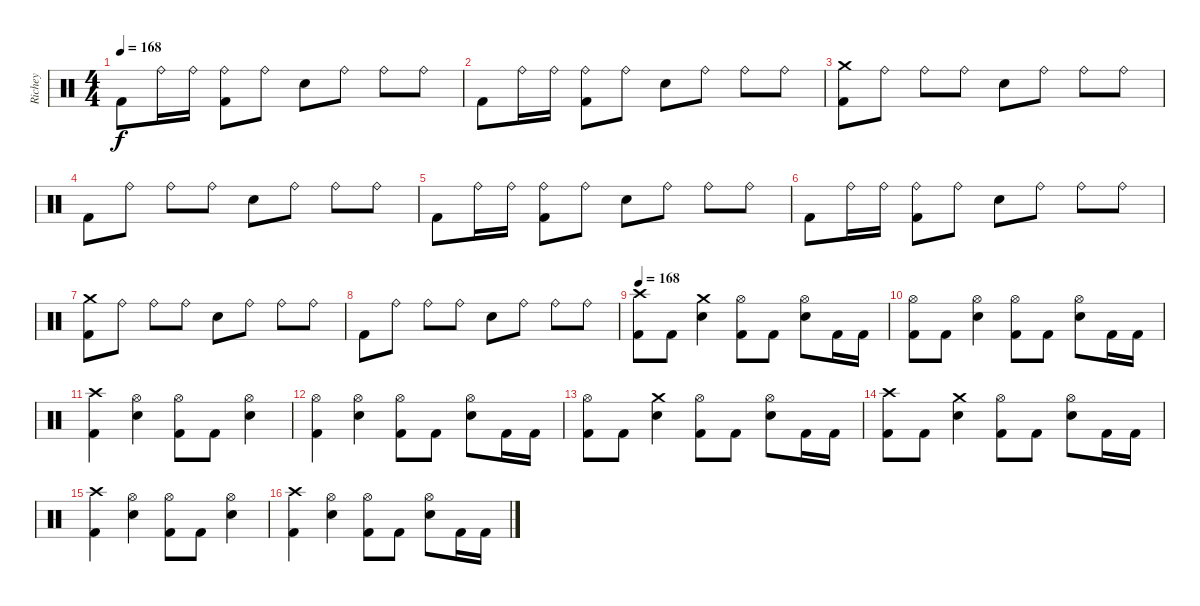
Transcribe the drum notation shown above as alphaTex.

\track ("Richey" "Richey") {instrument percussion}
\staff {score}
\articulation defaults
\ts (4 4)
\tempo 168
\clef neutral
\ks c "Kick (hit) 2".8{dy f} "Ride (bell)".16 "Ride (bell)".16
("Ride (bell)" "Kick (hit) 2").8 "Ride (bell)".8 "Snare (hit) 2".8 "Ride (bell)".8 "Ride (bell)".8 "Ride (bell)".8 |
"Kick (hit) 2".8 "Ride (bell)".16 "Ride (bell)".16 ("Ride (bell)" "Kick (hit) 2").8 "Ride (bell)".8 "Snare (hit) 2".8 "Ride (bell)".8 "Ride (bell)".8 "Ride (bell)".8 |
("Crash medium (hit)" "Kick (hit) 2").8 "Ride (bell)".8 "Ride (bell)".8 "Ride (bell)".8 "Snare (hit) 2".8 "Ride (bell)".8 "Ride (bell)".8 "Ride (bell)".8 |
"Kick (hit) 2".8 "Ride (bell)".8 "Ride (bell)".8 "Ride (bell)".8 "Snare (hit) 2".8 "Ride (bell)".8 "Ride (bell)".8 "Ride (bell)".8 |
"Kick (hit) 2".8 "Ride (bell)".16 "Ride (bell)".16 ("Ride (bell)" "Kick (hit) 2").8 "Ride (bell)".8 "Snare (hit) 2".8 "Ride (bell)".8 "Ride (bell)".8 "Ride (bell)".8 |
"Kick (hit) 2".8 "Ride (bell)".16 "Ride (bell)".16 ("Ride (bell)" "Kick (hit) 2").8 "Ride (bell)".8 "Snare (hit) 2".8 "Ride (bell)".8 "Ride (bell)".8 "Ride (bell)".8 |
("Crash medium (hit)" "Kick (hit) 2").8 "Ride (bell)".8 "Ride (bell)".8 "Ride (bell)".8 "Snare (hit) 2".8 "Ride (bell)".8 "Ride (bell)".8 "Ride (bell)".8 |
"Kick (hit) 2".8 "Ride (bell)".8 "Ride (bell)".8 "Ride (bell)".8 "Snare (hit) 2".8 "Ride (bell)".8 "Ride (bell)".8 "Ride (bell)".8 |
\tempo 168
("Crash high (hit)" "Kick (hit) 2").8 "Kick (hit) 2".8 ("Crash medium (hit)" "Snare (hit) 2").4 ("Hi-Hat (open)" "Kick (hit) 2").8 "Kick (hit) 2".8 ("Hi-Hat (open)" "Snare (hit) 2").8 "Kick (hit) 2".16 "Kick (hit) 2".16 |
("Hi-Hat (open)" "Kick (hit) 2").8 "Kick (hit) 2".8 ("Hi-Hat (open)" "Snare (hit) 2").4 ("Hi-Hat (open)" "Kick (hit) 2").8 "Kick (hit) 2".8 ("Hi-Hat (open)" "Snare (hit) 2").8 "Kick (hit) 2".16 "Kick (hit) 2".16 |
("Crash high (hit)" "Kick (hit) 2").4 ("Hi-Hat (open)" "Snare (hit) 2").4 ("Hi-Hat (open)" "Kick (hit) 2").8 "Kick (hit) 2".8 ("Hi-Hat (open)" "Snare (hit) 2").4 |
("Hi-Hat (open)" "Kick (hit) 2").4 ("Hi-Hat (open)" "Snare (hit) 2").4 ("Hi-Hat (open)" "Kick (hit) 2").8 "Kick (hit) 2".8 ("Hi-Hat (open)" "Snare (hit) 2").8 "Kick (hit) 2".16 "Kick (hit) 2".16 |
("Hi-Hat (open)" "Kick (hit) 2").8 "Kick (hit) 2".8 ("Crash medium (hit)" "Snare (hit) 2").4 ("Hi-Hat (open)" "Kick (hit) 2").8 "Kick (hit) 2".8 ("Hi-Hat (open)" "Snare (hit) 2").8 "Kick (hit) 2".16 "Kick (hit) 2".16 |
("Crash high (hit)" "Kick (hit) 2").8 "Kick (hit) 2".8 ("Crash medium (hit)" "Snare (hit) 2").4 ("Hi-Hat (open)" "Kick (hit) 2").8 "Kick (hit) 2".8 ("Hi-Hat (open)" "Snare (hit) 2").8 "Kick (hit) 2".16 "Kick (hit) 2".16 |
("Crash high (hit)" "Kick (hit) 2").4 ("Hi-Hat (open)" "Snare (hit) 2").4 ("Hi-Hat (open)" "Kick (hit) 2").8 "Kick (hit) 2".8 ("Hi-Hat (open)" "Snare (hit) 2").4 |
("Crash high (hit)" "Kick (hit) 2").4 ("Hi-Hat (open)" "Snare (hit) 2").4 ("Hi-Hat (open)" "Kick (hit) 2").8 "Kick (hit) 2".8 ("Hi-Hat (open)" "Snare (hit) 2").8 "Kick (hit) 2".16 "Kick (hit) 2".16
